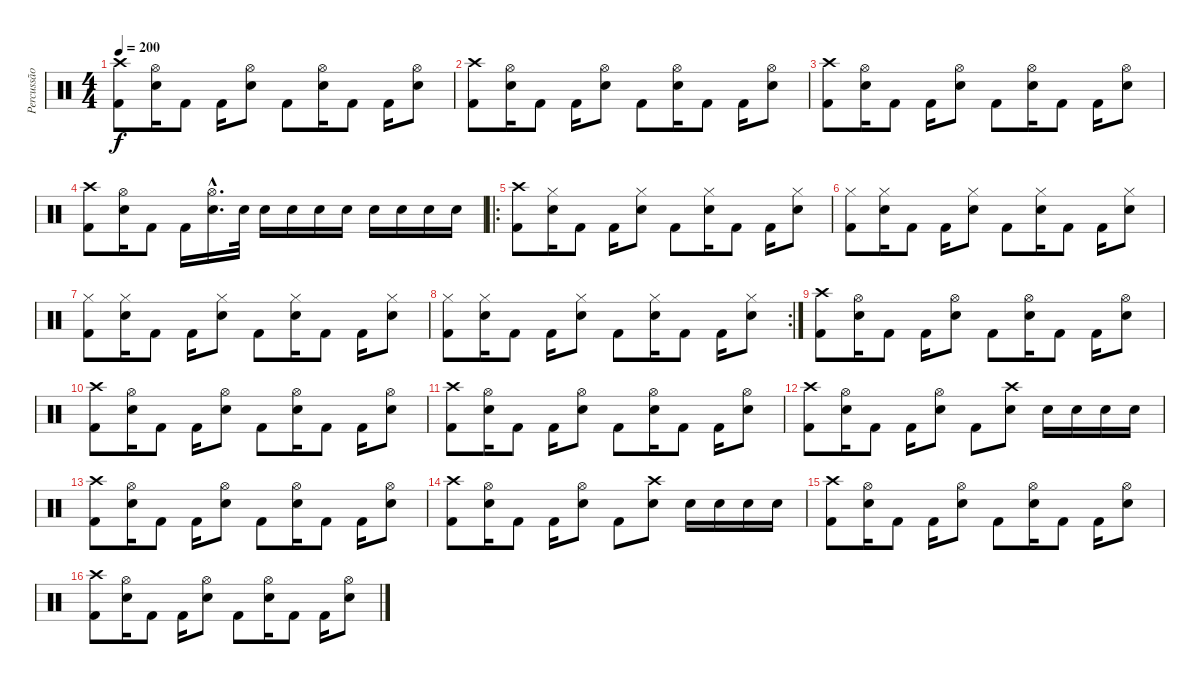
\track ("Percussão" "Percussão") {instrument percussion}
\staff {score}
\articulation defaults
\ts (4 4)
\tempo 200
\clef neutral
\ks c
("Crash high (hit)" "Kick (hit) 2").8{dy f} ("Hi-Hat (open)" "Snare (hit) 2").16 "Kick (hit) 2".8 "Kick (hit) 2".16 ("Hi-Hat (open)" "Snare (hit) 2").8 "Kick (hit) 2".8 ("Hi-Hat (open)" "Snare (hit) 2").16 "Kick (hit) 2".8 "Kick (hit) 2".16 ("Hi-Hat (open)" "Snare (hit) 2").8 |
("Crash high (hit)" "Kick (hit) 2").8 ("Hi-Hat (open)" "Snare (hit) 2").16 "Kick (hit) 2".8 "Kick (hit) 2".16 ("Hi-Hat (open)" "Snare (hit) 2").8 "Kick (hit) 2".8 ("Hi-Hat (open)" "Snare (hit) 2").16 "Kick (hit) 2".8 "Kick (hit) 2".16 ("Hi-Hat (open)" "Snare (hit) 2").8 |
("Crash high (hit)" "Kick (hit) 2").8 ("Hi-Hat (open)" "Snare (hit) 2").16 "Kick (hit) 2".8 "Kick (hit) 2".16 ("Hi-Hat (open)" "Snare (hit) 2").8 "Kick (hit) 2".8 ("Hi-Hat (open)" "Snare (hit) 2").16 "Kick (hit) 2".8 "Kick (hit) 2".16 ("Hi-Hat (open)" "Snare (hit) 2").8 |
("Crash high (hit)" "Kick (hit) 2").8 ("Hi-Hat (open)" "Snare (hit) 2").16 "Kick (hit) 2".8 "Kick (hit) 2".16 ("Hi-Hat (open)"{hac} "Snare (hit) 2"{hac}).16{d} "Snare (hit) 2".32 "Snare (hit) 2".16 "Snare (hit) 2".16 "Snare (hit) 2".16 "Snare (hit) 2".16 "Snare (hit) 2".16 "Snare (hit) 2".16 "Snare (hit) 2".16 "Snare (hit) 2".16 |
\ro
("Crash high (hit)" "Kick (hit) 2").8 ("Hi-Hat (closed)" "Snare (hit) 2").16 "Kick (hit) 2".8 "Kick (hit) 2".16 ("Hi-Hat (closed)" "Snare (hit) 2").8 "Kick (hit) 2".8 ("Hi-Hat (closed)" "Snare (hit) 2").16 "Kick (hit) 2".8 "Kick (hit) 2".16 ("Hi-Hat (closed)" "Snare (hit) 2").8 |
("Hi-Hat (closed)" "Kick (hit) 2").8 ("Hi-Hat (closed)" "Snare (hit) 2").16 "Kick (hit) 2".8 "Kick (hit) 2".16 ("Hi-Hat (closed)" "Snare (hit) 2").8 "Kick (hit) 2".8 ("Hi-Hat (closed)" "Snare (hit) 2").16 "Kick (hit) 2".8 "Kick (hit) 2".16 ("Hi-Hat (closed)" "Snare (hit) 2").8 |
("Hi-Hat (closed)" "Kick (hit) 2").8 ("Hi-Hat (closed)" "Snare (hit) 2").16 "Kick (hit) 2".8 "Kick (hit) 2".16 ("Hi-Hat (closed)" "Snare (hit) 2").8 "Kick (hit) 2".8 ("Hi-Hat (closed)" "Snare (hit) 2").16 "Kick (hit) 2".8 "Kick (hit) 2".16 ("Hi-Hat (closed)" "Snare (hit) 2").8 |
\rc 2
("Hi-Hat (closed)" "Kick (hit) 2").8 ("Hi-Hat (closed)" "Snare (hit) 2").16 "Kick (hit) 2".8 "Kick (hit) 2".16 ("Hi-Hat (closed)" "Snare (hit) 2").8 "Kick (hit) 2".8 ("Hi-Hat (closed)" "Snare (hit) 2").16 "Kick (hit) 2".8 "Kick (hit) 2".16 ("Hi-Hat (closed)" "Snare (hit) 2").8 |
("Crash high (hit)" "Kick (hit) 2").8 ("Hi-Hat (open)" "Snare (hit) 2").16 "Kick (hit) 2".8 "Kick (hit) 2".16 ("Hi-Hat (open)" "Snare (hit) 2").8 "Kick (hit) 2".8 ("Hi-Hat (open)" "Snare (hit) 2").16 "Kick (hit) 2".8 "Kick (hit) 2".16 ("Hi-Hat (open)" "Snare (hit) 2").8 |
("Crash high (hit)" "Kick (hit) 2").8 ("Hi-Hat (open)" "Snare (hit) 2").16 "Kick (hit) 2".8 "Kick (hit) 2".16 ("Hi-Hat (open)" "Snare (hit) 2").8 "Kick (hit) 2".8 ("Hi-Hat (open)" "Snare (hit) 2").16 "Kick (hit) 2".8 "Kick (hit) 2".16 ("Hi-Hat (open)" "Snare (hit) 2").8 |
("Crash high (hit)" "Kick (hit) 2").8 ("Hi-Hat (open)" "Snare (hit) 2").16 "Kick (hit) 2".8 "Kick (hit) 2".16 ("Hi-Hat (open)" "Snare (hit) 2").8 "Kick (hit) 2".8 ("Hi-Hat (open)" "Snare (hit) 2").16 "Kick (hit) 2".8 "Kick (hit) 2".16 ("Hi-Hat (open)" "Snare (hit) 2").8 |
("Crash high (hit)" "Kick (hit) 2").8 ("Hi-Hat (open)" "Snare (hit) 2").16 "Kick (hit) 2".8 "Kick (hit) 2".16 ("Hi-Hat (open)" "Snare (hit) 2").8 "Kick (hit) 2".8 ("Crash high (hit)" "Snare (hit) 2").8 "Snare (hit) 2".16 "Snare (hit) 2".16 "Snare (hit) 2".16 "Snare (hit) 2".16 |
("Crash high (hit)" "Kick (hit) 2").8 ("Hi-Hat (open)" "Snare (hit) 2").16 "Kick (hit) 2".8 "Kick (hit) 2".16 ("Hi-Hat (open)" "Snare (hit) 2").8 "Kick (hit) 2".8 ("Hi-Hat (open)" "Snare (hit) 2").16 "Kick (hit) 2".8 "Kick (hit) 2".16 ("Hi-Hat (open)" "Snare (hit) 2").8 |
("Crash high (hit)" "Kick (hit) 2").8 ("Hi-Hat (open)" "Snare (hit) 2").16 "Kick (hit) 2".8 "Kick (hit) 2".16 ("Hi-Hat (open)" "Snare (hit) 2").8 "Kick (hit) 2".8 ("Crash high (hit)" "Snare (hit) 2").8 "Snare (hit) 2".16 "Snare (hit) 2".16 "Snare (hit) 2".16 "Snare (hit) 2".16 |
("Crash high (hit)" "Kick (hit) 2").8 ("Hi-Hat (open)" "Snare (hit) 2").16 "Kick (hit) 2".8 "Kick (hit) 2".16 ("Hi-Hat (open)" "Snare (hit) 2").8 "Kick (hit) 2".8 ("Hi-Hat (open)" "Snare (hit) 2").16 "Kick (hit) 2".8 "Kick (hit) 2".16 ("Hi-Hat (open)" "Snare (hit) 2").8 |
("Crash high (hit)" "Kick (hit) 2").8 ("Hi-Hat (open)" "Snare (hit) 2").16 "Kick (hit) 2".8 "Kick (hit) 2".16 ("Hi-Hat (open)" "Snare (hit) 2").8 "Kick (hit) 2".8 ("Hi-Hat (open)" "Snare (hit) 2").16 "Kick (hit) 2".8 "Kick (hit) 2".16 ("Hi-Hat (open)" "Snare (hit) 2").8
